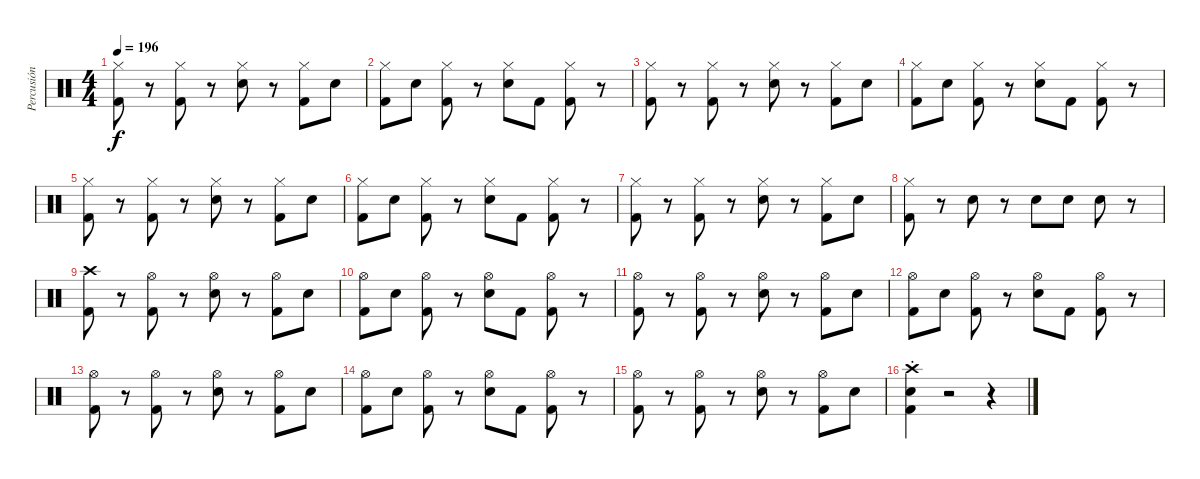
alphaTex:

\track ("Percusión" "Percusión") {instrument percussion}
\staff {score}
\articulation defaults
\ts (4 4)
\tempo 196
\clef neutral
\ks c
("Hi-Hat (closed)" "Kick (hit) 2").8{dy f} r.8 ("Hi-Hat (closed)" "Kick (hit) 2").8 r.8 ("Hi-Hat (closed)" "Snare (hit) 2").8 r.8 ("Hi-Hat (closed)" "Kick (hit) 2").8 "Snare (hit) 2".8 |
("Hi-Hat (closed)" "Kick (hit) 2").8 "Snare (hit) 2".8 ("Hi-Hat (closed)" "Kick (hit) 2").8 r.8 ("Hi-Hat (closed)" "Snare (hit) 2").8 "Kick (hit) 2".8 ("Hi-Hat (closed)" "Kick (hit) 2").8 r.8 |
("Hi-Hat (closed)" "Kick (hit) 2").8 r.8 ("Hi-Hat (closed)" "Kick (hit) 2").8 r.8 ("Hi-Hat (closed)" "Snare (hit) 2").8 r.8 ("Hi-Hat (closed)" "Kick (hit) 2").8 "Snare (hit) 2".8 |
("Hi-Hat (closed)" "Kick (hit) 2").8 "Snare (hit) 2".8 ("Hi-Hat (closed)" "Kick (hit) 2").8 r.8 ("Hi-Hat (closed)" "Snare (hit) 2").8 "Kick (hit) 2".8 ("Hi-Hat (closed)" "Kick (hit) 2").8 r.8 |
("Hi-Hat (closed)" "Kick (hit) 2").8 r.8 ("Hi-Hat (closed)" "Kick (hit) 2").8 r.8 ("Hi-Hat (closed)" "Snare (hit) 2").8 r.8 ("Hi-Hat (closed)" "Kick (hit) 2").8 "Snare (hit) 2".8 |
("Hi-Hat (closed)" "Kick (hit) 2").8 "Snare (hit) 2".8 ("Hi-Hat (closed)" "Kick (hit) 2").8 r.8 ("Hi-Hat (closed)" "Snare (hit) 2").8 "Kick (hit) 2".8 ("Hi-Hat (closed)" "Kick (hit) 2").8 r.8 |
("Hi-Hat (closed)" "Kick (hit) 2").8 r.8 ("Hi-Hat (closed)" "Kick (hit) 2").8 r.8 ("Hi-Hat (closed)" "Snare (hit) 2").8 r.8 ("Hi-Hat (closed)" "Kick (hit) 2").8 "Snare (hit) 2".8 |
("Hi-Hat (closed)" "Kick (hit) 2").8 r.8 "Snare (hit) 2".8 r.8 "Snare (hit) 2".8 "Snare (hit) 2".8 "Snare (hit) 2".8 r.8 |
("Crash high (hit)" "Kick (hit) 2").8 r.8 ("Hi-Hat (open)" "Kick (hit) 2").8 r.8 ("Hi-Hat (open)" "Snare (hit) 2").8 r.8 ("Hi-Hat (open)" "Kick (hit) 2").8 "Snare (hit) 2".8 |
("Hi-Hat (open)" "Kick (hit) 2").8 "Snare (hit) 2".8 ("Hi-Hat (open)" "Kick (hit) 2").8 r.8 ("Hi-Hat (open)" "Snare (hit) 2").8 "Kick (hit) 2".8 ("Hi-Hat (open)" "Kick (hit) 2").8 r.8 |
("Hi-Hat (open)" "Kick (hit) 2").8 r.8 ("Hi-Hat (open)" "Kick (hit) 2").8 r.8 ("Hi-Hat (open)" "Snare (hit) 2").8 r.8 ("Hi-Hat (open)" "Kick (hit) 2").8 "Snare (hit) 2".8 |
("Hi-Hat (open)" "Kick (hit) 2").8 "Snare (hit) 2".8 ("Hi-Hat (open)" "Kick (hit) 2").8 r.8 ("Hi-Hat (open)" "Snare (hit) 2").8 "Kick (hit) 2".8 ("Hi-Hat (open)" "Kick (hit) 2").8 r.8 |
("Hi-Hat (open)" "Kick (hit) 2").8 r.8 ("Hi-Hat (open)" "Kick (hit) 2").8 r.8 ("Hi-Hat (open)" "Snare (hit) 2").8 r.8 ("Hi-Hat (open)" "Kick (hit) 2").8 "Snare (hit) 2".8 |
("Hi-Hat (open)" "Kick (hit) 2").8 "Snare (hit) 2".8 ("Hi-Hat (open)" "Kick (hit) 2").8 r.8 ("Hi-Hat (open)" "Snare (hit) 2").8 "Kick (hit) 2".8 ("Hi-Hat (open)" "Kick (hit) 2").8 r.8 |
("Hi-Hat (open)" "Kick (hit) 2").8 r.8 ("Hi-Hat (open)" "Kick (hit) 2").8 r.8 ("Hi-Hat (open)" "Snare (hit) 2").8 r.8 ("Hi-Hat (open)" "Kick (hit) 2").8 "Snare (hit) 2".8 |
("Crash high (hit)" "Snare (hit) 2" "Kick (hit) 2"{st}).4 r.2 r.4
